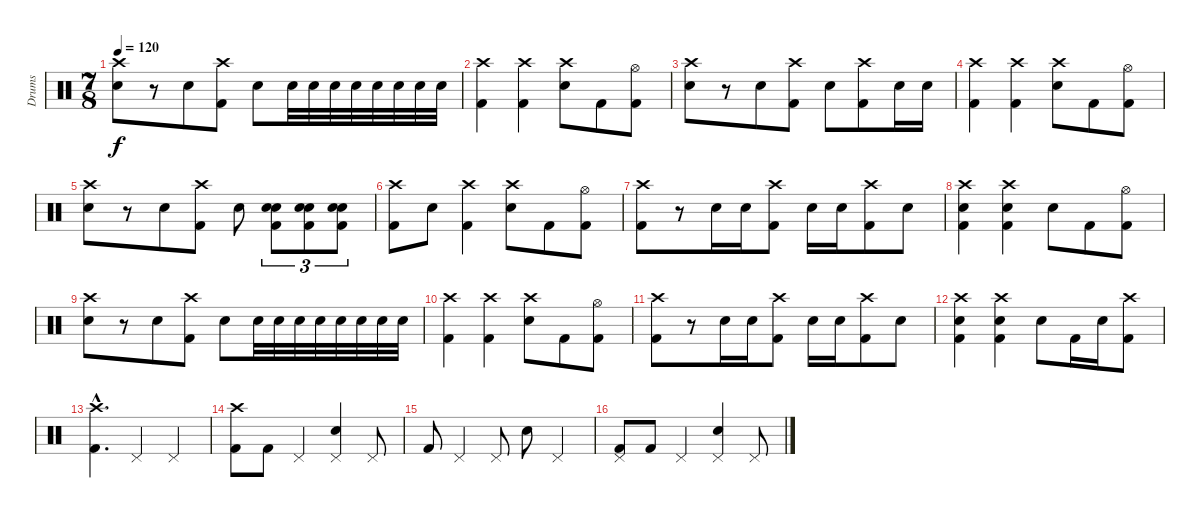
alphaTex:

\track ("Drums" "Drums") {instrument percussion}
\staff {score}
\articulation defaults
\ts (7 8)
\tempo 120
\clef neutral
\ks c
("Crash high (hit)" "Electric Snare (hit)").8{dy f} r.8 "Electric Snare (hit)".8 ("Crash high (hit)" "Kick (hit) 2").8 "Electric Snare (hit)".8 "Electric Snare (hit)".32 "Electric Snare (hit)".32 "Electric Snare (hit)".32 "Electric Snare (hit)".32 "Electric Snare (hit)".32 "Electric Snare (hit)".32 "Electric Snare (hit)".32 "Electric Snare (hit)".32 |
("Crash high (hit)" "Kick (hit) 2").4 ("Crash high (hit)" "Kick (hit) 2").4 ("Crash high (hit)" "Electric Snare (hit)").8 "Kick (hit) 2".8 ("Hi-Hat (open)" "Kick (hit) 2").8 |
("Crash high (hit)" "Electric Snare (hit)").8 r.8 "Electric Snare (hit)".8 ("Crash high (hit)" "Kick (hit) 2").8 "Electric Snare (hit)".8 ("Crash high (hit)" "Kick (hit) 2").8 "Electric Snare (hit)".16 "Electric Snare (hit)".16 |
("Crash high (hit)" "Kick (hit) 2").4 ("Crash high (hit)" "Kick (hit) 2").4 ("Crash high (hit)" "Electric Snare (hit)").8 "Kick (hit) 2".8 ("Hi-Hat (open)" "Kick (hit) 2").8 |
("Crash high (hit)" "Electric Snare (hit)").8 r.8 "Electric Snare (hit)".8 ("Crash high (hit)" "Kick (hit) 2").8 "Electric Snare (hit)".8 ("Electric Snare (hit)" "Snare (hit) 2" "Kick (hit) 2").8{tu (3 2)} ("Electric Snare (hit)" "Snare (hit) 2" "Kick (hit) 2").8{tu (3 2)} ("Electric Snare (hit)" "Snare (hit) 2" "Kick (hit) 2").8{tu (3 2)} |
("Crash high (hit)" "Kick (hit) 2").8 "Electric Snare (hit)".8 ("Crash high (hit)" "Kick (hit) 2").4 ("Crash high (hit)" "Electric Snare (hit)").8 "Kick (hit) 2".8 ("Hi-Hat (open)" "Kick (hit) 2").8 |
("Crash high (hit)" "Kick (hit) 2").8 r.8 "Electric Snare (hit)".16 "Electric Snare (hit)".16 ("Crash high (hit)" "Kick (hit) 2").8 "Electric Snare (hit)".16 "Electric Snare (hit)".16 ("Crash high (hit)" "Kick (hit) 2").8 "Electric Snare (hit)".8 |
("Crash high (hit)" "Electric Snare (hit)" "Kick (hit) 2").4 ("Crash high (hit)" "Electric Snare (hit)" "Kick (hit) 2").4 "Electric Snare (hit)".8 "Kick (hit) 2".8 ("Hi-Hat (open)" "Kick (hit) 2").8 |
("Crash high (hit)" "Electric Snare (hit)").8 r.8 "Electric Snare (hit)".8 ("Crash high (hit)" "Kick (hit) 2").8 "Electric Snare (hit)".8 "Electric Snare (hit)".32 "Electric Snare (hit)".32 "Electric Snare (hit)".32 "Electric Snare (hit)".32 "Electric Snare (hit)".32 "Electric Snare (hit)".32 "Electric Snare (hit)".32 "Electric Snare (hit)".32 |
("Crash high (hit)" "Kick (hit) 2").4 ("Crash high (hit)" "Kick (hit) 2").4 ("Crash high (hit)" "Electric Snare (hit)").8 "Kick (hit) 2".8 ("Hi-Hat (open)" "Kick (hit) 2").8 |
("Crash high (hit)" "Kick (hit) 2").8 r.8 "Electric Snare (hit)".16 "Electric Snare (hit)".16 ("Crash high (hit)" "Kick (hit) 2").8 "Electric Snare (hit)".16 "Electric Snare (hit)".16 ("Crash high (hit)" "Kick (hit) 2").8 "Electric Snare (hit)".8 |
("Crash high (hit)" "Electric Snare (hit)" "Kick (hit) 2").4 ("Crash high (hit)" "Electric Snare (hit)" "Kick (hit) 2").4 "Electric Snare (hit)".8 "Kick (hit) 2".16 "Electric Snare (hit)".16 ("Crash high (hit)" "Kick (hit) 2").8 |
("Crash high (hit)"{hac} "Kick (hit) 2"{hac}).4{d} "Pedal Hi-Hat (hit)".4 "Pedal Hi-Hat (hit)".4 |
("Crash high (hit)" "Kick (hit) 2").8 "Kick (hit) 2".8 "Pedal Hi-Hat (hit)".4 ("Pedal Hi-Hat (hit)" "Electric Snare (hit)").4 "Pedal Hi-Hat (hit)".8 |
"Kick (hit) 2".8 "Pedal Hi-Hat (hit)".4 "Pedal Hi-Hat (hit)".8 "Electric Snare (hit)".8 "Pedal Hi-Hat (hit)".4 |
("Pedal Hi-Hat (hit)" "Kick (hit) 2").8 "Kick (hit) 2".8 "Pedal Hi-Hat (hit)".4 ("Pedal Hi-Hat (hit)" "Electric Snare (hit)").4 "Pedal Hi-Hat (hit)".8
